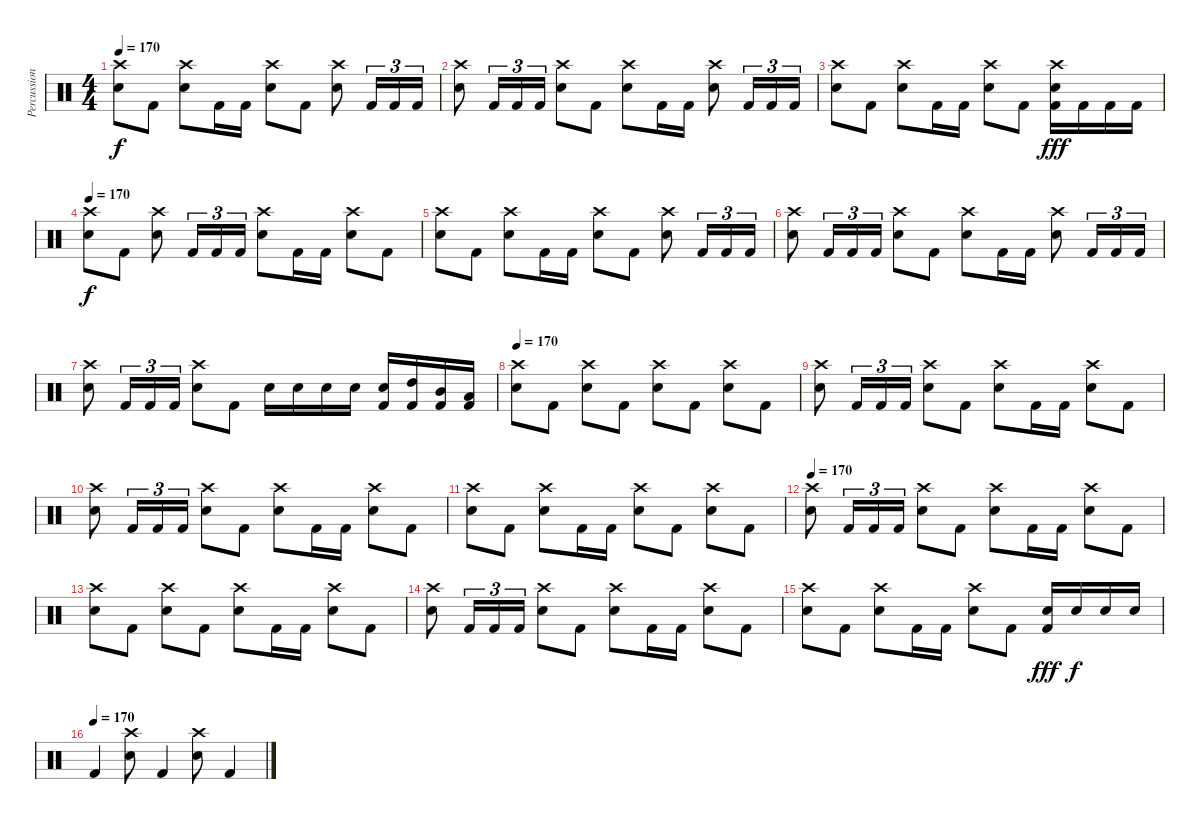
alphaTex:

\track ("Percussion" "Percussion") {instrument percussion}
\staff {score}
\articulation defaults
\ts (4 4)
\tempo 170
\clef neutral
\ks c
("Crash high (hit)" "Electric Snare (hit)").8{dy f} "Kick (hit) 2".8 ("Crash high (hit)" "Electric Snare (hit)").8 "Kick (hit) 2".16 "Kick (hit) 2".16 ("Crash high (hit)" "Electric Snare (hit)").8 "Kick (hit) 2".8 ("Crash high (hit)" "Electric Snare (hit)").8 "Kick (hit) 2".16{tu (3 2)} "Kick (hit) 2".16{tu (3 2)} "Kick (hit) 2".16{tu (3 2)} |
("Crash high (hit)" "Electric Snare (hit)").8 "Kick (hit) 2".16{tu (3 2)} "Kick (hit) 2".16{tu (3 2)} "Kick (hit) 2".16{tu (3 2)} ("Crash high (hit)" "Electric Snare (hit)").8 "Kick (hit) 2".8 ("Crash high (hit)" "Electric Snare (hit)").8 "Kick (hit) 2".16 "Kick (hit) 2".16 ("Crash high (hit)" "Electric Snare (hit)").8 "Kick (hit) 2".16{tu (3 2)} "Kick (hit) 2".16{tu (3 2)} "Kick (hit) 2".16{tu (3 2)} |
("Crash high (hit)" "Electric Snare (hit)").8 "Kick (hit) 2".8 ("Crash high (hit)" "Electric Snare (hit)").8 "Kick (hit) 2".16 "Kick (hit) 2".16 ("Crash high (hit)" "Electric Snare (hit)").8 "Kick (hit) 2".8 ("Crash high (hit)" "Electric Snare (hit)" "Kick (hit) 2").16{dy fff} "Kick (hit) 2".16 "Kick (hit) 2".16 "Kick (hit) 2".16 |
\tempo 170
("Crash high (hit)" "Electric Snare (hit)").8{dy f} "Kick (hit) 2".8 ("Crash high (hit)" "Electric Snare (hit)").8 "Kick (hit) 2".16{tu (3 2)} "Kick (hit) 2".16{tu (3 2)} "Kick (hit) 2".16{tu (3 2)} ("Crash high (hit)" "Electric Snare (hit)").8 "Kick (hit) 2".16 "Kick (hit) 2".16 ("Crash high (hit)" "Electric Snare (hit)").8 "Kick (hit) 2".8 |
("Crash high (hit)" "Electric Snare (hit)").8 "Kick (hit) 2".8 ("Crash high (hit)" "Electric Snare (hit)").8 "Kick (hit) 2".16 "Kick (hit) 2".16 ("Crash high (hit)" "Electric Snare (hit)").8 "Kick (hit) 2".8 ("Crash high (hit)" "Electric Snare (hit)").8 "Kick (hit) 2".16{tu (3 2)} "Kick (hit) 2".16{tu (3 2)} "Kick (hit) 2".16{tu (3 2)} |
("Crash high (hit)" "Electric Snare (hit)").8 "Kick (hit) 2".16{tu (3 2)} "Kick (hit) 2".16{tu (3 2)} "Kick (hit) 2".16{tu (3 2)} ("Crash high (hit)" "Electric Snare (hit)").8 "Kick (hit) 2".8 ("Crash high (hit)" "Electric Snare (hit)").8 "Kick (hit) 2".16 "Kick (hit) 2".16 ("Crash high (hit)" "Electric Snare (hit)").8 "Kick (hit) 2".16{tu (3 2)} "Kick (hit) 2".16{tu (3 2)} "Kick (hit) 2".16{tu (3 2)} |
("Crash high (hit)" "Electric Snare (hit)").8 "Kick (hit) 2".16{tu (3 2)} "Kick (hit) 2".16{tu (3 2)} "Kick (hit) 2".16{tu (3 2)} ("Crash high (hit)" "Electric Snare (hit)").8 "Kick (hit) 2".8 "Electric Snare (hit)".16 "Electric Snare (hit)".16 "Electric Snare (hit)".16 "Electric Snare (hit)".16 ("Electric Snare (hit)" "Kick (hit) 2").16 ("High Tom (hit)" "Kick (hit) 2").16 ("Mid Tom (hit)" "Kick (hit) 2").16 ("Low Tom (hit)" "Kick (hit) 2").16 |
\tempo 170
("Crash high (hit)" "Electric Snare (hit)").8 "Kick (hit) 2".8 ("Crash high (hit)" "Electric Snare (hit)").8 "Kick (hit) 2".8 ("Crash high (hit)" "Electric Snare (hit)").8 "Kick (hit) 2".8 ("Crash high (hit)" "Electric Snare (hit)").8 "Kick (hit) 2".8 |
("Crash high (hit)" "Electric Snare (hit)").8 "Kick (hit) 2".16{tu (3 2)} "Kick (hit) 2".16{tu (3 2)} "Kick (hit) 2".16{tu (3 2)} ("Crash high (hit)" "Electric Snare (hit)").8 "Kick (hit) 2".8 ("Crash high (hit)" "Electric Snare (hit)").8 "Kick (hit) 2".16 "Kick (hit) 2".16 ("Crash high (hit)" "Electric Snare (hit)").8 "Kick (hit) 2".8 |
("Crash high (hit)" "Electric Snare (hit)").8 "Kick (hit) 2".16{tu (3 2)} "Kick (hit) 2".16{tu (3 2)} "Kick (hit) 2".16{tu (3 2)} ("Crash high (hit)" "Electric Snare (hit)").8 "Kick (hit) 2".8 ("Crash high (hit)" "Electric Snare (hit)").8 "Kick (hit) 2".16 "Kick (hit) 2".16 ("Crash high (hit)" "Electric Snare (hit)").8 "Kick (hit) 2".8 |
("Crash high (hit)" "Electric Snare (hit)").8 "Kick (hit) 2".8 ("Crash high (hit)" "Electric Snare (hit)").8 "Kick (hit) 2".16 "Kick (hit) 2".16 ("Crash high (hit)" "Electric Snare (hit)").8 "Kick (hit) 2".8 ("Crash high (hit)" "Electric Snare (hit)").8 "Kick (hit) 2".8 |
\tempo 170
("Crash high (hit)" "Electric Snare (hit)").8 "Kick (hit) 2".16{tu (3 2)} "Kick (hit) 2".16{tu (3 2)} "Kick (hit) 2".16{tu (3 2)} ("Crash high (hit)" "Electric Snare (hit)").8 "Kick (hit) 2".8 ("Crash high (hit)" "Electric Snare (hit)").8 "Kick (hit) 2".16 "Kick (hit) 2".16 ("Crash high (hit)" "Electric Snare (hit)").8 "Kick (hit) 2".8 |
("Crash high (hit)" "Electric Snare (hit)").8 "Kick (hit) 2".8 ("Crash high (hit)" "Electric Snare (hit)").8 "Kick (hit) 2".8 ("Crash high (hit)" "Electric Snare (hit)").8 "Kick (hit) 2".16 "Kick (hit) 2".16 ("Crash high (hit)" "Electric Snare (hit)").8 "Kick (hit) 2".8 |
("Crash high (hit)" "Electric Snare (hit)").8 "Kick (hit) 2".16{tu (3 2)} "Kick (hit) 2".16{tu (3 2)} "Kick (hit) 2".16{tu (3 2)} ("Crash high (hit)" "Electric Snare (hit)").8 "Kick (hit) 2".8 ("Crash high (hit)" "Electric Snare (hit)").8 "Kick (hit) 2".16 "Kick (hit) 2".16 ("Crash high (hit)" "Electric Snare (hit)").8 "Kick (hit) 2".8 |
("Crash high (hit)" "Electric Snare (hit)").8 "Kick (hit) 2".8 ("Crash high (hit)" "Electric Snare (hit)").8 "Kick (hit) 2".16 "Kick (hit) 2".16 ("Crash high (hit)" "Electric Snare (hit)").8 "Kick (hit) 2".8 ("Electric Snare (hit)" "Kick (hit) 2").16{dy fff} "Electric Snare (hit)".16{dy f} "Electric Snare (hit)".16 "Electric Snare (hit)".16 |
\tempo (170)
"Kick (hit) 2".4 ("Crash high (hit)" "Electric Snare (hit)").8 "Kick (hit) 2".4 ("Crash high (hit)" "Electric Snare (hit)").8 "Kick (hit) 2".4
